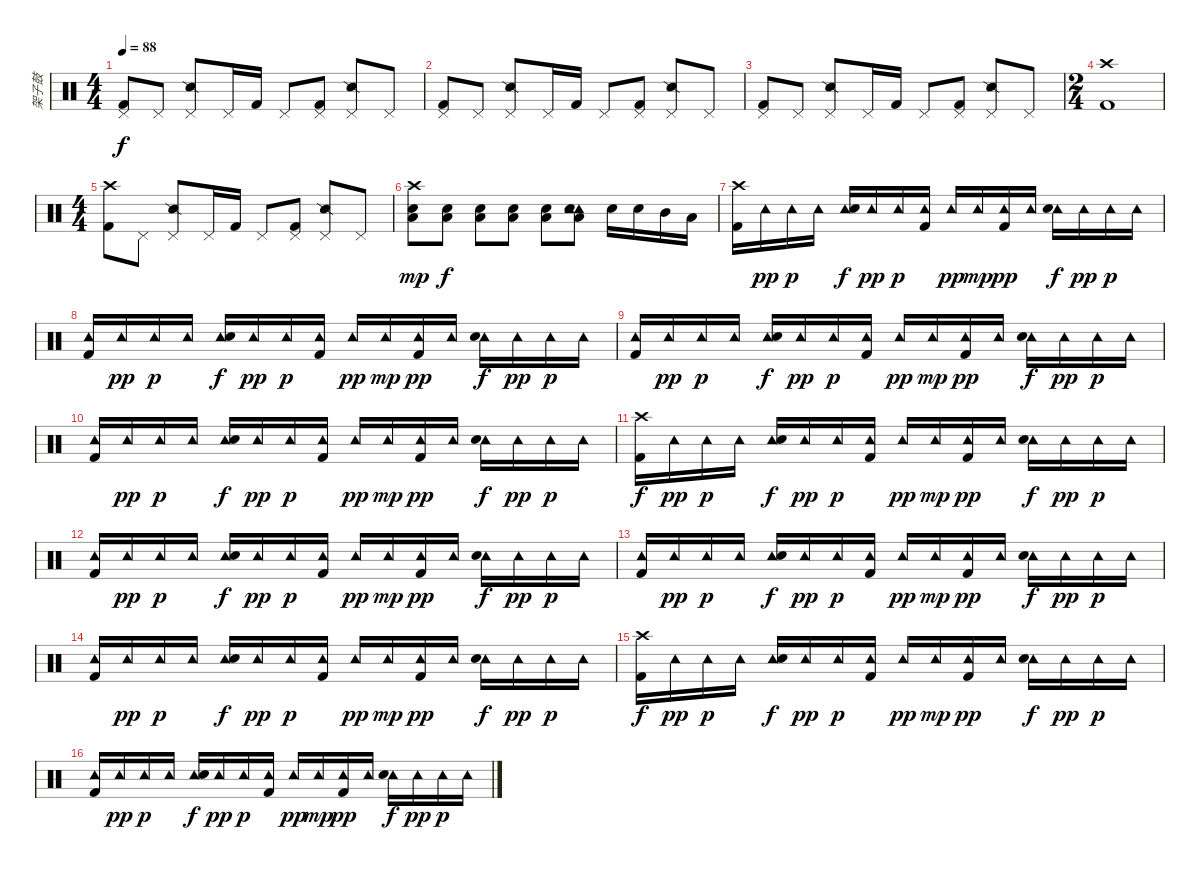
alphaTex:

\track ("架子鼓" "架子鼓") {instrument percussion}
\staff {score}
\articulation defaults
\ts (4 4)
\tempo 88
\clef neutral
\ks c
("Pedal Hi-Hat (hit)" "Kick (hit) 2").8{dy f} "Pedal Hi-Hat (hit)".8 ("Pedal Hi-Hat (hit)" "Snare (side stick) 2").8 "Pedal Hi-Hat (hit)".16 "Kick (hit) 2".16 "Pedal Hi-Hat (hit)".8 ("Pedal Hi-Hat (hit)" "Kick (hit) 2").8 ("Pedal Hi-Hat (hit)" "Snare (side stick) 2").8 "Pedal Hi-Hat (hit)".8 |
("Pedal Hi-Hat (hit)" "Kick (hit) 2").8 "Pedal Hi-Hat (hit)".8 ("Pedal Hi-Hat (hit)" "Snare (side stick) 2").8 "Pedal Hi-Hat (hit)".16 "Kick (hit) 2".16 "Pedal Hi-Hat (hit)".8 ("Pedal Hi-Hat (hit)" "Kick (hit) 2").8 ("Pedal Hi-Hat (hit)" "Snare (side stick) 2").8 "Pedal Hi-Hat (hit)".8 |
("Pedal Hi-Hat (hit)" "Kick (hit) 2").8 "Pedal Hi-Hat (hit)".8 ("Pedal Hi-Hat (hit)" "Snare (side stick) 2").8 "Pedal Hi-Hat (hit)".16 "Kick (hit) 2".16 "Pedal Hi-Hat (hit)".8 ("Pedal Hi-Hat (hit)" "Kick (hit) 2").8 ("Pedal Hi-Hat (hit)" "Snare (side stick) 2").8 "Pedal Hi-Hat (hit)".8 |
\ts (2 4)
("Crash high (hit)" "Kick (hit) 2").1 |
\ts (4 4)
("Crash high (hit)" "Kick (hit) 2").8 "Pedal Hi-Hat (hit)".8 ("Pedal Hi-Hat (hit)" "Snare (side stick) 2").8 "Pedal Hi-Hat (hit)".16 "Kick (hit) 2".16 "Pedal Hi-Hat (hit)".8 ("Pedal Hi-Hat (hit)" "Kick (hit) 2").8 ("Pedal Hi-Hat (hit)" "Snare (side stick) 2").8 "Pedal Hi-Hat (hit)".8 |
("Crash high (hit)" "Electric Snare (hit)" "Low Tom (hit)").8{dy mp} ("Electric Snare (hit)" "Low Tom (hit)").8{dy f} ("Electric Snare (hit)" "Low Tom (hit)").8 ("Electric Snare (hit)" "Low Tom (hit)").8 ("Electric Snare (hit)" "Low Tom (hit)").8 ("Tambourine (hit)" "Electric Snare (hit)" "Low Tom (hit)" "Tambourine (hit)").8 "Electric Snare (hit)".16 "Electric Snare (hit)".16 "Mid Tom (hit)".16 "Low Tom (hit)".16 |
("Crash high (hit)" "Kick (hit) 2").16 "Tambourine (hit)".16{dy pp} "Tambourine (hit)".16{dy p} "Tambourine (hit)".16 ("Tambourine (hit)" "Electric Snare (hit)").16{dy f} "Tambourine (hit)".16{dy pp} "Tambourine (hit)".16{dy p} ("Tambourine (hit)" "Kick (hit) 2").16 "Tambourine (hit)".16{dy pp} "Tambourine (hit)".16{dy mp} ("Tambourine (hit)" "Kick (hit) 2").16{dy pp} "Tambourine (hit)".16 ("Tambourine (hit)" "Electric Snare (hit)").16{dy f} "Tambourine (hit)".16{dy pp} "Tambourine (hit)".16{dy p} "Tambourine (hit)".16 |
("Tambourine (hit)" "Kick (hit) 2").16 "Tambourine (hit)".16{dy pp} "Tambourine (hit)".16{dy p} "Tambourine (hit)".16 ("Tambourine (hit)" "Electric Snare (hit)").16{dy f} "Tambourine (hit)".16{dy pp} "Tambourine (hit)".16{dy p} ("Tambourine (hit)" "Kick (hit) 2").16 "Tambourine (hit)".16{dy pp} "Tambourine (hit)".16{dy mp} ("Tambourine (hit)" "Kick (hit) 2").16{dy pp} "Tambourine (hit)".16 ("Tambourine (hit)" "Electric Snare (hit)").16{dy f} "Tambourine (hit)".16{dy pp} "Tambourine (hit)".16{dy p} "Tambourine (hit)".16 |
("Tambourine (hit)" "Kick (hit) 2").16 "Tambourine (hit)".16{dy pp} "Tambourine (hit)".16{dy p} "Tambourine (hit)".16 ("Tambourine (hit)" "Electric Snare (hit)").16{dy f} "Tambourine (hit)".16{dy pp} "Tambourine (hit)".16{dy p} ("Tambourine (hit)" "Kick (hit) 2").16 "Tambourine (hit)".16{dy pp} "Tambourine (hit)".16{dy mp} ("Tambourine (hit)" "Kick (hit) 2").16{dy pp} "Tambourine (hit)".16 ("Tambourine (hit)" "Electric Snare (hit)").16{dy f} "Tambourine (hit)".16{dy pp} "Tambourine (hit)".16{dy p} "Tambourine (hit)".16 |
("Tambourine (hit)" "Kick (hit) 2").16 "Tambourine (hit)".16{dy pp} "Tambourine (hit)".16{dy p} "Tambourine (hit)".16 ("Tambourine (hit)" "Electric Snare (hit)").16{dy f} "Tambourine (hit)".16{dy pp} "Tambourine (hit)".16{dy p} ("Tambourine (hit)" "Kick (hit) 2").16 "Tambourine (hit)".16{dy pp} "Tambourine (hit)".16{dy mp} ("Tambourine (hit)" "Kick (hit) 2").16{dy pp} "Tambourine (hit)".16 ("Tambourine (hit)" "Electric Snare (hit)").16{dy f} "Tambourine (hit)".16{dy pp} "Tambourine (hit)".16{dy p} "Tambourine (hit)".16 |
("Crash high (hit)" "Kick (hit) 2").16{dy f} "Tambourine (hit)".16{dy pp} "Tambourine (hit)".16{dy p} "Tambourine (hit)".16 ("Tambourine (hit)" "Electric Snare (hit)").16{dy f} "Tambourine (hit)".16{dy pp} "Tambourine (hit)".16{dy p} ("Tambourine (hit)" "Kick (hit) 2").16 "Tambourine (hit)".16{dy pp} "Tambourine (hit)".16{dy mp} ("Tambourine (hit)" "Kick (hit) 2").16{dy pp} "Tambourine (hit)".16 ("Tambourine (hit)" "Electric Snare (hit)").16{dy f} "Tambourine (hit)".16{dy pp} "Tambourine (hit)".16{dy p} "Tambourine (hit)".16 |
("Tambourine (hit)" "Kick (hit) 2").16 "Tambourine (hit)".16{dy pp} "Tambourine (hit)".16{dy p} "Tambourine (hit)".16 ("Tambourine (hit)" "Electric Snare (hit)").16{dy f} "Tambourine (hit)".16{dy pp} "Tambourine (hit)".16{dy p} ("Tambourine (hit)" "Kick (hit) 2").16 "Tambourine (hit)".16{dy pp} "Tambourine (hit)".16{dy mp} ("Tambourine (hit)" "Kick (hit) 2").16{dy pp} "Tambourine (hit)".16 ("Tambourine (hit)" "Electric Snare (hit)").16{dy f} "Tambourine (hit)".16{dy pp} "Tambourine (hit)".16{dy p} "Tambourine (hit)".16 |
("Tambourine (hit)" "Kick (hit) 2").16 "Tambourine (hit)".16{dy pp} "Tambourine (hit)".16{dy p} "Tambourine (hit)".16 ("Tambourine (hit)" "Electric Snare (hit)").16{dy f} "Tambourine (hit)".16{dy pp} "Tambourine (hit)".16{dy p} ("Tambourine (hit)" "Kick (hit) 2").16 "Tambourine (hit)".16{dy pp} "Tambourine (hit)".16{dy mp} ("Tambourine (hit)" "Kick (hit) 2").16{dy pp} "Tambourine (hit)".16 ("Tambourine (hit)" "Electric Snare (hit)").16{dy f} "Tambourine (hit)".16{dy pp} "Tambourine (hit)".16{dy p} "Tambourine (hit)".16 |
("Tambourine (hit)" "Kick (hit) 2").16 "Tambourine (hit)".16{dy pp} "Tambourine (hit)".16{dy p} "Tambourine (hit)".16 ("Tambourine (hit)" "Electric Snare (hit)").16{dy f} "Tambourine (hit)".16{dy pp} "Tambourine (hit)".16{dy p} ("Tambourine (hit)" "Kick (hit) 2").16 "Tambourine (hit)".16{dy pp} "Tambourine (hit)".16{dy mp} ("Tambourine (hit)" "Kick (hit) 2").16{dy pp} "Tambourine (hit)".16 ("Tambourine (hit)" "Electric Snare (hit)").16{dy f} "Tambourine (hit)".16{dy pp} "Tambourine (hit)".16{dy p} "Tambourine (hit)".16 |
("Crash high (hit)" "Kick (hit) 2").16{dy f} "Tambourine (hit)".16{dy pp} "Tambourine (hit)".16{dy p} "Tambourine (hit)".16 ("Tambourine (hit)" "Electric Snare (hit)").16{dy f} "Tambourine (hit)".16{dy pp} "Tambourine (hit)".16{dy p} ("Tambourine (hit)" "Kick (hit) 2").16 "Tambourine (hit)".16{dy pp} "Tambourine (hit)".16{dy mp} ("Tambourine (hit)" "Kick (hit) 2").16{dy pp} "Tambourine (hit)".16 ("Tambourine (hit)" "Electric Snare (hit)").16{dy f} "Tambourine (hit)".16{dy pp} "Tambourine (hit)".16{dy p} "Tambourine (hit)".16 |
("Tambourine (hit)" "Kick (hit) 2").16 "Tambourine (hit)".16{dy pp} "Tambourine (hit)".16{dy p} "Tambourine (hit)".16 ("Tambourine (hit)" "Electric Snare (hit)").16{dy f} "Tambourine (hit)".16{dy pp} "Tambourine (hit)".16{dy p} ("Tambourine (hit)" "Kick (hit) 2").16 "Tambourine (hit)".16{dy pp} "Tambourine (hit)".16{dy mp} ("Tambourine (hit)" "Kick (hit) 2").16{dy pp} "Tambourine (hit)".16 ("Tambourine (hit)" "Electric Snare (hit)").16{dy f} "Tambourine (hit)".16{dy pp} "Tambourine (hit)".16{dy p} "Tambourine (hit)".16
